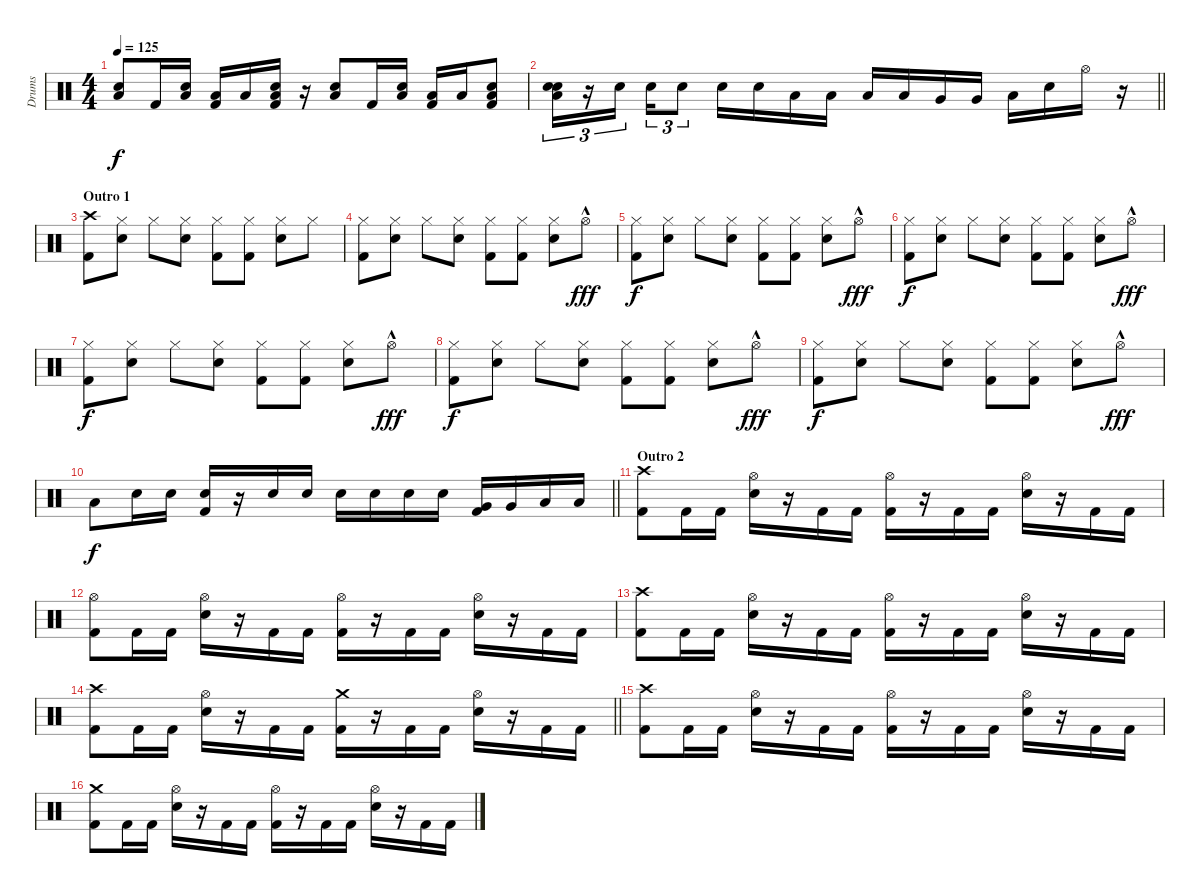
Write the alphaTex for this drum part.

\track ("Drums" "Drums") {instrument percussion}
\staff {score}
\articulation defaults
\ts (4 4)
\tempo 125
\clef neutral
\ks c
("Low Floor Tom (hit)" "Snare (hit) 2").8{dy f} "Kick (hit) 2".16 ("Low Floor Tom (hit)" "Snare (hit) 2").16 ("Low Floor Tom (hit)" "Kick (hit) 2").16 "Low Floor Tom (hit)".16 ("Low Floor Tom (hit)" "Snare (hit) 2" "Kick (hit) 2").16 r.16 ("Low Floor Tom (hit)" "Snare (hit) 2").8 "Kick (hit) 2".16 ("Low Floor Tom (hit)" "Snare (hit) 2").16 ("Low Floor Tom (hit)" "Kick (hit) 2").16 "Low Floor Tom (hit)".16 ("Low Floor Tom (hit)" "Snare (hit) 2" "Kick (hit) 2").8 |
\barLineRight lightlight
("Low Floor Tom (hit)" "Snare (hit) 2" "Snare (hit) 2").16{tu (3 2)} r.16{tu (3 2)} "Snare (hit) 2".16{tu (3 2) beam splitsecondary} "Snare (hit) 2".16{tu (3 2)} "Snare (hit) 2".8{tu (3 2)} "Snare (hit) 2".16 "Snare (hit) 2".16 "Low Tom (hit)".16 "Low Tom (hit)".16 "Low Tom (hit)".16 "Low Tom (hit)".16 "Very Low Tom (hit)".16 "Very Low Tom (hit)".16 "Low Floor Tom (hit)".16 "Snare (hit) 2".16 "Hi-Hat (open)".16 r.16 |
\section ("" "Outro 1")
("Crash high (hit)" "Kick (hit) 2").8 ("Hi-Hat (closed)" "Snare (hit) 2").8 "Hi-Hat (closed)".8 ("Hi-Hat (closed)" "Snare (hit) 2").8 ("Hi-Hat (closed)" "Kick (hit) 2").8 ("Hi-Hat (closed)" "Kick (hit) 2").8 ("Hi-Hat (closed)" "Snare (hit) 2").8 "Hi-Hat (closed)".8 |
("Hi-Hat (closed)" "Kick (hit) 2").8 ("Hi-Hat (closed)" "Snare (hit) 2").8 "Hi-Hat (closed)".8 ("Hi-Hat (closed)" "Snare (hit) 2").8 ("Hi-Hat (closed)" "Kick (hit) 2").8 ("Hi-Hat (closed)" "Kick (hit) 2").8 ("Hi-Hat (closed)" "Snare (hit) 2").8 "Hi-Hat (open)"{hac}.8{dy fff} |
("Hi-Hat (closed)" "Kick (hit) 2").8{dy f} ("Hi-Hat (closed)" "Snare (hit) 2").8 "Hi-Hat (closed)".8 ("Hi-Hat (closed)" "Snare (hit) 2").8 ("Hi-Hat (closed)" "Kick (hit) 2").8 ("Hi-Hat (closed)" "Kick (hit) 2").8 ("Hi-Hat (closed)" "Snare (hit) 2").8 "Hi-Hat (open)"{hac}.8{dy fff} |
("Hi-Hat (closed)" "Kick (hit) 2").8{dy f} ("Hi-Hat (closed)" "Snare (hit) 2").8 "Hi-Hat (closed)".8 ("Hi-Hat (closed)" "Snare (hit) 2").8 ("Hi-Hat (closed)" "Kick (hit) 2").8 ("Hi-Hat (closed)" "Kick (hit) 2").8 ("Hi-Hat (closed)" "Snare (hit) 2").8 "Hi-Hat (open)"{hac}.8{dy fff} |
("Hi-Hat (closed)" "Kick (hit) 2").8{dy f} ("Hi-Hat (closed)" "Snare (hit) 2").8 "Hi-Hat (closed)".8 ("Hi-Hat (closed)" "Snare (hit) 2").8 ("Hi-Hat (closed)" "Kick (hit) 2").8 ("Hi-Hat (closed)" "Kick (hit) 2").8 ("Hi-Hat (closed)" "Snare (hit) 2").8 "Hi-Hat (open)"{hac}.8{dy fff} |
("Hi-Hat (closed)" "Kick (hit) 2").8{dy f} ("Hi-Hat (closed)" "Snare (hit) 2").8 "Hi-Hat (closed)".8 ("Hi-Hat (closed)" "Snare (hit) 2").8 ("Hi-Hat (closed)" "Kick (hit) 2").8 ("Hi-Hat (closed)" "Kick (hit) 2").8 ("Hi-Hat (closed)" "Snare (hit) 2").8 "Hi-Hat (open)"{hac}.8{dy fff} |
("Hi-Hat (closed)" "Kick (hit) 2").8{dy f} ("Hi-Hat (closed)" "Snare (hit) 2").8 "Hi-Hat (closed)".8 ("Hi-Hat (closed)" "Snare (hit) 2").8 ("Hi-Hat (closed)" "Kick (hit) 2").8 ("Hi-Hat (closed)" "Kick (hit) 2").8 ("Hi-Hat (closed)" "Snare (hit) 2").8 "Hi-Hat (open)"{hac}.8{dy fff} |
\barLineRight lightlight "Low Tom (hit)".8{dy f} "Snare (hit) 2".16 "Snare (hit) 2".16
("Snare (hit) 2" "Kick (hit) 2").16 r.16 "Snare (hit) 2".16 "Snare (hit) 2".16 "Snare (hit) 2".16 "Snare (hit) 2".16 "Snare (hit) 2".16 "Snare (hit) 2".16 ("Very Low Tom (hit)" "Kick (hit) 2").16 "Very Low Tom (hit)".16 "Low Floor Tom (hit)".16 "Low Floor Tom (hit)".16 |
\section ("" "Outro 2")
("Crash high (hit)" "Kick (hit) 2").8 "Kick (hit) 2".16 "Kick (hit) 2".16 ("Hi-Hat (open)" "Snare (hit) 2").16 r.16 "Kick (hit) 2".16 "Kick (hit) 2".16 ("Hi-Hat (open)" "Kick (hit) 2").16 r.16 "Kick (hit) 2".16 "Kick (hit) 2".16 ("Hi-Hat (open)" "Snare (hit) 2").16 r.16 "Kick (hit) 2".16 "Kick (hit) 2".16 |
("Hi-Hat (open)" "Kick (hit) 2").8 "Kick (hit) 2".16 "Kick (hit) 2".16 ("Hi-Hat (open)" "Snare (hit) 2").16 r.16 "Kick (hit) 2".16 "Kick (hit) 2".16 ("Hi-Hat (open)" "Kick (hit) 2").16 r.16 "Kick (hit) 2".16 "Kick (hit) 2".16 ("Hi-Hat (open)" "Snare (hit) 2").16 r.16 "Kick (hit) 2".16 "Kick (hit) 2".16 |
("Crash high (hit)" "Kick (hit) 2").8 "Kick (hit) 2".16 "Kick (hit) 2".16 ("Hi-Hat (open)" "Snare (hit) 2").16 r.16 "Kick (hit) 2".16 "Kick (hit) 2".16 ("Hi-Hat (open)" "Kick (hit) 2").16 r.16 "Kick (hit) 2".16 "Kick (hit) 2".16 ("Hi-Hat (open)" "Snare (hit) 2").16 r.16 "Kick (hit) 2".16 "Kick (hit) 2".16 |
\barLineRight lightlight
("Crash high (hit)" "Kick (hit) 2").8 "Kick (hit) 2".16 "Kick (hit) 2".16 ("Hi-Hat (open)" "Snare (hit) 2").16 r.16 "Kick (hit) 2".16 "Kick (hit) 2".16 ("Crash medium (hit)" "Kick (hit) 2").16 r.16 "Kick (hit) 2".16 "Kick (hit) 2".16 ("Hi-Hat (open)" "Snare (hit) 2").16 r.16 "Kick (hit) 2".16 "Kick (hit) 2".16 |
("Crash high (hit)" "Kick (hit) 2").8 "Kick (hit) 2".16 "Kick (hit) 2".16 ("Hi-Hat (open)" "Snare (hit) 2").16 r.16 "Kick (hit) 2".16 "Kick (hit) 2".16 ("Hi-Hat (open)" "Kick (hit) 2").16 r.16 "Kick (hit) 2".16 "Kick (hit) 2".16 ("Hi-Hat (open)" "Snare (hit) 2").16 r.16 "Kick (hit) 2".16 "Kick (hit) 2".16 |
("Crash medium (hit)" "Kick (hit) 2").8 "Kick (hit) 2".16 "Kick (hit) 2".16 ("Hi-Hat (open)" "Snare (hit) 2").16 r.16 "Kick (hit) 2".16 "Kick (hit) 2".16 ("Hi-Hat (open)" "Kick (hit) 2").16 r.16 "Kick (hit) 2".16 "Kick (hit) 2".16 ("Hi-Hat (open)" "Snare (hit) 2").16 r.16 "Kick (hit) 2".16 "Kick (hit) 2".16
